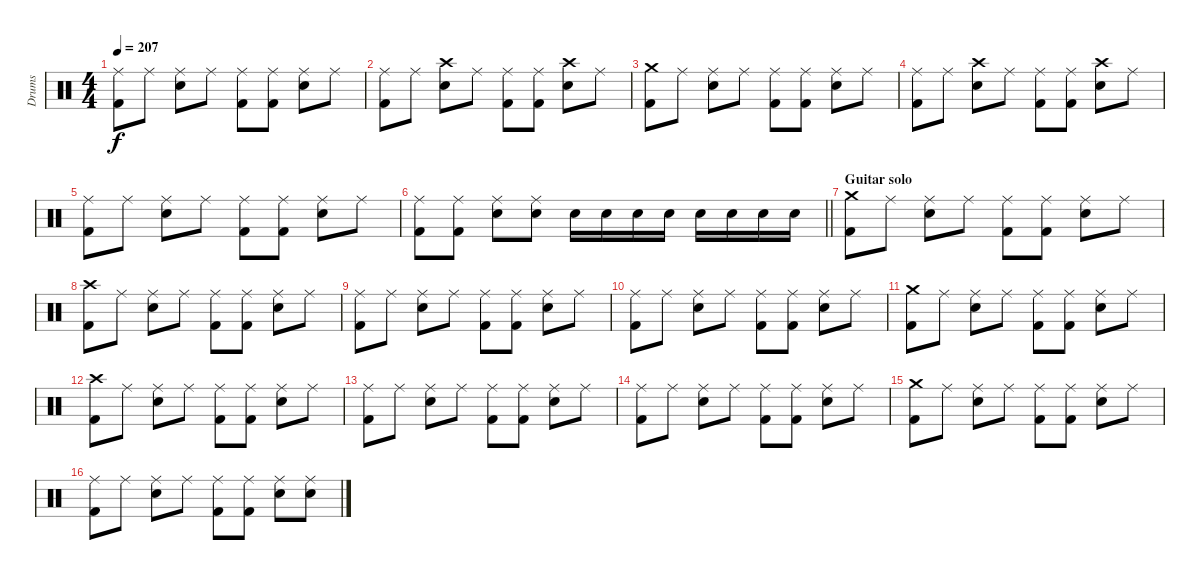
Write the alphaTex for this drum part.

\track ("Drums" "Drums") {instrument percussion}
\staff {score}
\articulation defaults
\ts (4 4)
\tempo 207
\clef neutral
\ks c
("Ride (middle)" "Kick (hit) 2").8{dy f} "Ride (middle)".8 ("Ride (middle)" "Electric Snare (hit)").8 "Ride (middle)".8 ("Ride (middle)" "Kick (hit) 2").8 ("Ride (middle)" "Kick (hit) 2").8 ("Ride (middle)" "Electric Snare (hit)").8 "Ride (middle)".8 |
("Ride (middle)" "Kick (hit) 2").8 "Ride (middle)".8 ("Crash high (hit)" "Electric Snare (hit)").8 "Ride (middle)".8 ("Ride (middle)" "Kick (hit) 2").8 ("Ride (middle)" "Kick (hit) 2").8 ("Crash high (hit)" "Electric Snare (hit)").8 "Ride (middle)".8 |
("Crash medium (hit)" "Kick (hit) 2").8 "Ride (middle)".8 ("Ride (middle)" "Electric Snare (hit)").8 "Ride (middle)".8 ("Ride (middle)" "Kick (hit) 2").8 ("Ride (middle)" "Kick (hit) 2").8 ("Ride (middle)" "Electric Snare (hit)").8 "Ride (middle)".8 |
("Ride (middle)" "Kick (hit) 2").8 "Ride (middle)".8 ("Crash high (hit)" "Electric Snare (hit)").8 "Ride (middle)".8 ("Ride (middle)" "Kick (hit) 2").8 ("Ride (middle)" "Kick (hit) 2").8 ("Crash high (hit)" "Electric Snare (hit)").8 "Ride (middle)".8 |
("Ride (middle)" "Kick (hit) 2").8 "Ride (middle)".8 ("Ride (middle)" "Electric Snare (hit)").8 "Ride (middle)".8 ("Ride (middle)" "Kick (hit) 2").8 ("Ride (middle)" "Kick (hit) 2").8 ("Ride (middle)" "Electric Snare (hit)").8 "Ride (middle)".8 |
\barLineRight lightlight
("Ride (middle)" "Kick (hit) 2").8 ("Ride (middle)" "Kick (hit) 2").8 ("Ride (middle)" "Electric Snare (hit)").8 ("Ride (middle)" "Electric Snare (hit)").8 "Electric Snare (hit)".16 "Electric Snare (hit)".16 "Electric Snare (hit)".16 "Electric Snare (hit)".16 "Electric Snare (hit)".16 "Electric Snare (hit)".16 "Electric Snare (hit)".16 "Electric Snare (hit)".16 |
\section ("" "Guitar solo")
("Crash medium (hit)" "Kick (hit) 2").8 "Ride (middle)".8 ("Ride (middle)" "Electric Snare (hit)").8 "Ride (middle)".8 ("Ride (middle)" "Kick (hit) 2").8 ("Ride (middle)" "Kick (hit) 2").8 ("Ride (middle)" "Electric Snare (hit)").8 "Ride (middle)".8 |
("Crash high (hit)" "Kick (hit) 2").8 "Ride (middle)".8 ("Ride (middle)" "Electric Snare (hit)").8 "Ride (middle)".8 ("Ride (middle)" "Kick (hit) 2").8 ("Ride (middle)" "Kick (hit) 2").8 ("Ride (middle)" "Electric Snare (hit)").8 "Ride (middle)".8 |
("Ride (middle)" "Kick (hit) 2").8 "Ride (middle)".8 ("Ride (middle)" "Electric Snare (hit)").8 "Ride (middle)".8 ("Ride (middle)" "Kick (hit) 2").8 ("Ride (middle)" "Kick (hit) 2").8 ("Ride (middle)" "Electric Snare (hit)").8 "Ride (middle)".8 |
("Ride (middle)" "Kick (hit) 2").8 "Ride (middle)".8 ("Ride (middle)" "Electric Snare (hit)").8 "Ride (middle)".8 ("Ride (middle)" "Kick (hit) 2").8 ("Ride (middle)" "Kick (hit) 2").8 ("Ride (middle)" "Electric Snare (hit)").8 "Ride (middle)".8 |
("Crash medium (hit)" "Kick (hit) 2").8 "Ride (middle)".8 ("Ride (middle)" "Electric Snare (hit)").8 "Ride (middle)".8 ("Ride (middle)" "Kick (hit) 2").8 ("Ride (middle)" "Kick (hit) 2").8 ("Ride (middle)" "Electric Snare (hit)").8 "Ride (middle)".8 |
("Crash high (hit)" "Kick (hit) 2").8 "Ride (middle)".8 ("Ride (middle)" "Electric Snare (hit)").8 "Ride (middle)".8 ("Ride (middle)" "Kick (hit) 2").8 ("Ride (middle)" "Kick (hit) 2").8 ("Ride (middle)" "Electric Snare (hit)").8 "Ride (middle)".8 |
("Ride (middle)" "Kick (hit) 2").8 "Ride (middle)".8 ("Ride (middle)" "Electric Snare (hit)").8 "Ride (middle)".8 ("Ride (middle)" "Kick (hit) 2").8 ("Ride (middle)" "Kick (hit) 2").8 ("Ride (middle)" "Electric Snare (hit)").8 "Ride (middle)".8 |
("Ride (middle)" "Kick (hit) 2").8 "Ride (middle)".8 ("Ride (middle)" "Electric Snare (hit)").8 "Ride (middle)".8 ("Ride (middle)" "Kick (hit) 2").8 ("Ride (middle)" "Kick (hit) 2").8 ("Ride (middle)" "Electric Snare (hit)").8 "Ride (middle)".8 |
("Crash medium (hit)" "Kick (hit) 2").8 "Ride (middle)".8 ("Ride (middle)" "Electric Snare (hit)").8 "Ride (middle)".8 ("Ride (middle)" "Kick (hit) 2").8 ("Ride (middle)" "Kick (hit) 2").8 ("Ride (middle)" "Electric Snare (hit)").8 "Ride (middle)".8 |
("Ride (middle)" "Kick (hit) 2").8 "Ride (middle)".8 ("Ride (middle)" "Electric Snare (hit)").8 "Ride (middle)".8 ("Ride (middle)" "Kick (hit) 2").8 ("Ride (middle)" "Kick (hit) 2").8 ("Ride (middle)" "Electric Snare (hit)").8 ("Ride (middle)" "Electric Snare (hit)").8
